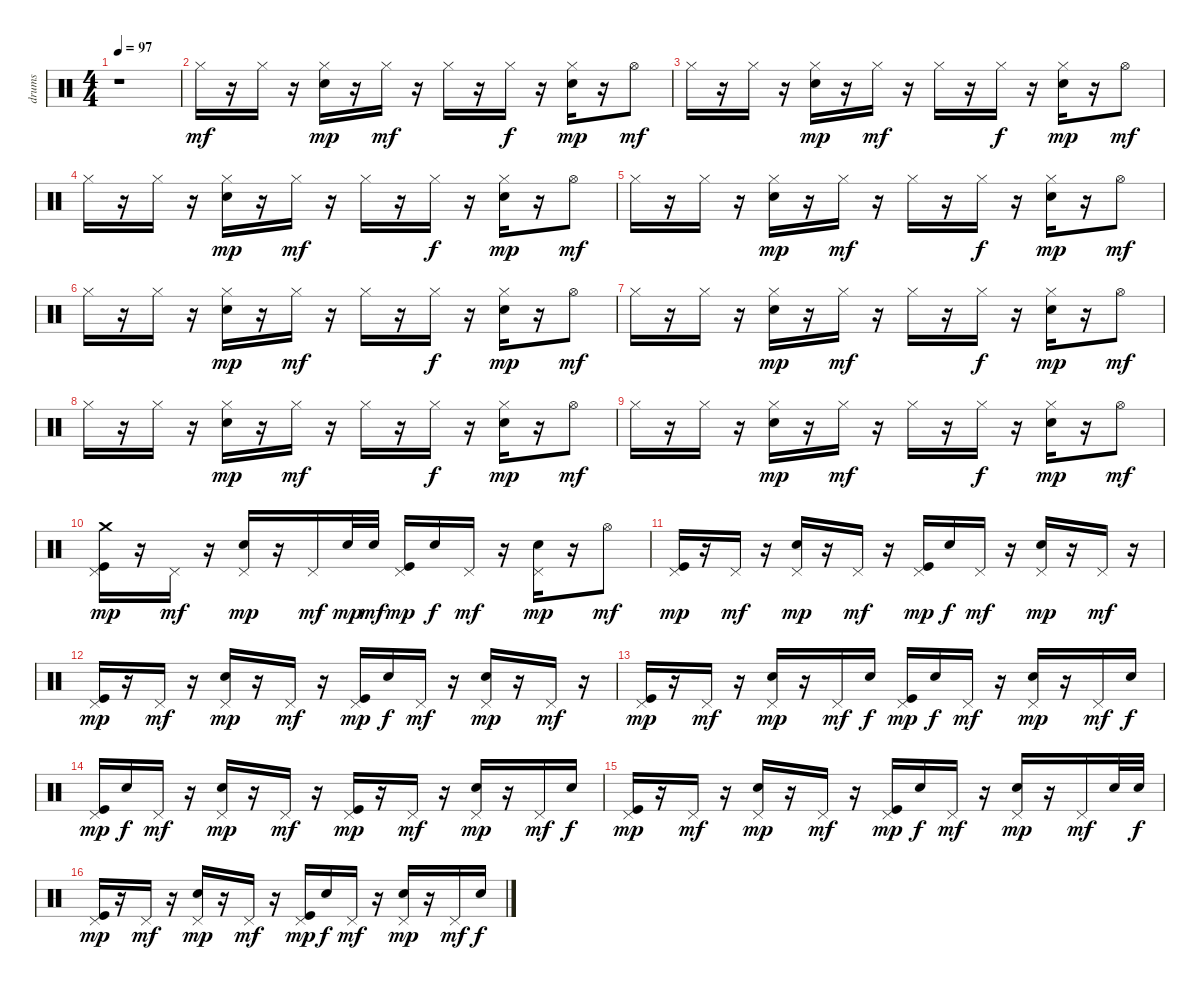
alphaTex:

\track ("drums" "drums") {instrument percussion}
\staff {score}
\articulation defaults
\ts (4 4)
\tempo 97
\clef neutral
\ks c
r.1{dy mf} |
"Hi-Hat (closed)".16 r.16 "Hi-Hat (closed)".16 r.16 ("Hi-Hat (closed)" "Electric Snare (hit)").16{dy mp} r.16 "Hi-Hat (closed)".16{dy mf} r.16 "Hi-Hat (closed)".16 r.16 "Hi-Hat (closed)".16{dy f} r.16 ("Hi-Hat (closed)" "Electric Snare (hit)").16{dy mp} r.16 "Hi-Hat (open)".8{dy mf} |
"Hi-Hat (closed)".16 r.16 "Hi-Hat (closed)".16 r.16 ("Hi-Hat (closed)" "Electric Snare (hit)").16{dy mp} r.16 "Hi-Hat (closed)".16{dy mf} r.16 "Hi-Hat (closed)".16 r.16 "Hi-Hat (closed)".16{dy f} r.16 ("Hi-Hat (closed)" "Electric Snare (hit)").16{dy mp} r.16 "Hi-Hat (open)".8{dy mf} |
"Hi-Hat (closed)".16 r.16 "Hi-Hat (closed)".16 r.16 ("Hi-Hat (closed)" "Electric Snare (hit)").16{dy mp} r.16 "Hi-Hat (closed)".16{dy mf} r.16 "Hi-Hat (closed)".16 r.16 "Hi-Hat (closed)".16{dy f} r.16 ("Hi-Hat (closed)" "Electric Snare (hit)").16{dy mp} r.16 "Hi-Hat (open)".8{dy mf} |
"Hi-Hat (closed)".16 r.16 "Hi-Hat (closed)".16 r.16 ("Hi-Hat (closed)" "Electric Snare (hit)").16{dy mp} r.16 "Hi-Hat (closed)".16{dy mf} r.16 "Hi-Hat (closed)".16 r.16 "Hi-Hat (closed)".16{dy f} r.16 ("Hi-Hat (closed)" "Electric Snare (hit)").16{dy mp} r.16 "Hi-Hat (open)".8{dy mf} |
"Hi-Hat (closed)".16 r.16 "Hi-Hat (closed)".16 r.16 ("Hi-Hat (closed)" "Electric Snare (hit)").16{dy mp} r.16 "Hi-Hat (closed)".16{dy mf} r.16 "Hi-Hat (closed)".16 r.16 "Hi-Hat (closed)".16{dy f} r.16 ("Hi-Hat (closed)" "Electric Snare (hit)").16{dy mp} r.16 "Hi-Hat (open)".8{dy mf} |
"Hi-Hat (closed)".16 r.16 "Hi-Hat (closed)".16 r.16 ("Hi-Hat (closed)" "Electric Snare (hit)").16{dy mp} r.16 "Hi-Hat (closed)".16{dy mf} r.16 "Hi-Hat (closed)".16 r.16 "Hi-Hat (closed)".16{dy f} r.16 ("Hi-Hat (closed)" "Electric Snare (hit)").16{dy mp} r.16 "Hi-Hat (open)".8{dy mf} |
"Hi-Hat (closed)".16 r.16 "Hi-Hat (closed)".16 r.16 ("Hi-Hat (closed)" "Electric Snare (hit)").16{dy mp} r.16 "Hi-Hat (closed)".16{dy mf} r.16 "Hi-Hat (closed)".16 r.16 "Hi-Hat (closed)".16{dy f} r.16 ("Hi-Hat (closed)" "Electric Snare (hit)").16{dy mp} r.16 "Hi-Hat (open)".8{dy mf} |
"Hi-Hat (closed)".16 r.16 "Hi-Hat (closed)".16 r.16 ("Hi-Hat (closed)" "Electric Snare (hit)").16{dy mp} r.16 "Hi-Hat (closed)".16{dy mf} r.16 "Hi-Hat (closed)".16 r.16 "Hi-Hat (closed)".16{dy f} r.16 ("Hi-Hat (closed)" "Electric Snare (hit)").16{dy mp} r.16 "Hi-Hat (open)".8{dy mf} |
("Crash medium (hit)" "Kick (hit)" "Pedal Hi-Hat (hit)").16{dy mp} r.16 "Pedal Hi-Hat (hit)".16{dy mf} r.16 ("Electric Snare (hit)" "Pedal Hi-Hat (hit)").16{dy mp} r.16 "Pedal Hi-Hat (hit)".16{dy mf} "Electric Snare (hit)".32{dy mp} "Electric Snare (hit)".32{dy mf} ("Pedal Hi-Hat (hit)" "Kick (hit)").16{dy mp} "Electric Snare (hit)".16{dy f} "Pedal Hi-Hat (hit)".16{dy mf} r.16 ("Electric Snare (hit)" "Pedal Hi-Hat (hit)").16{dy mp} r.16 "Hi-Hat (open)".8{dy mf} |
("Kick (hit)" "Pedal Hi-Hat (hit)").16{dy mp} r.16 "Pedal Hi-Hat (hit)".16{dy mf} r.16 ("Electric Snare (hit)" "Pedal Hi-Hat (hit)").16{dy mp} r.16 "Pedal Hi-Hat (hit)".16{dy mf} r.16 ("Pedal Hi-Hat (hit)" "Kick (hit)").16{dy mp} "Electric Snare (hit)".16{dy f} "Pedal Hi-Hat (hit)".16{dy mf} r.16 ("Electric Snare (hit)" "Pedal Hi-Hat (hit)").16{dy mp} r.16 "Pedal Hi-Hat (hit)".16{dy mf} r.16 |
("Kick (hit)" "Pedal Hi-Hat (hit)").16{dy mp} r.16 "Pedal Hi-Hat (hit)".16{dy mf} r.16 ("Electric Snare (hit)" "Pedal Hi-Hat (hit)").16{dy mp} r.16 "Pedal Hi-Hat (hit)".16{dy mf} r.16 ("Pedal Hi-Hat (hit)" "Kick (hit)").16{dy mp} "Electric Snare (hit)".16{dy f} "Pedal Hi-Hat (hit)".16{dy mf} r.16 ("Electric Snare (hit)" "Pedal Hi-Hat (hit)").16{dy mp} r.16 "Pedal Hi-Hat (hit)".16{dy mf} r.16 |
("Kick (hit)" "Pedal Hi-Hat (hit)").16{dy mp} r.16 "Pedal Hi-Hat (hit)".16{dy mf} r.16 ("Electric Snare (hit)" "Pedal Hi-Hat (hit)").16{dy mp} r.16 "Pedal Hi-Hat (hit)".16{dy mf} "Electric Snare (hit)".16{dy f} ("Pedal Hi-Hat (hit)" "Kick (hit)").16{dy mp} "Electric Snare (hit)".16{dy f} "Pedal Hi-Hat (hit)".16{dy mf} r.16 ("Electric Snare (hit)" "Pedal Hi-Hat (hit)").16{dy mp} r.16 "Pedal Hi-Hat (hit)".16{dy mf} "Electric Snare (hit)".16{dy f} |
("Kick (hit)" "Pedal Hi-Hat (hit)").16{dy mp} "Electric Snare (hit)".16{dy f} "Pedal Hi-Hat (hit)".16{dy mf} r.16 ("Electric Snare (hit)" "Pedal Hi-Hat (hit)").16{dy mp} r.16 "Pedal Hi-Hat (hit)".16{dy mf} r.16 ("Pedal Hi-Hat (hit)" "Kick (hit)").16{dy mp} r.16 "Pedal Hi-Hat (hit)".16{dy mf} r.16 ("Electric Snare (hit)" "Pedal Hi-Hat (hit)").16{dy mp} r.16 "Pedal Hi-Hat (hit)".16{dy mf} "Electric Snare (hit)".16{dy f} |
("Kick (hit)" "Pedal Hi-Hat (hit)").16{dy mp} r.16 "Pedal Hi-Hat (hit)".16{dy mf} r.16 ("Electric Snare (hit)" "Pedal Hi-Hat (hit)").16{dy mp} r.16 "Pedal Hi-Hat (hit)".16{dy mf} r.16 ("Pedal Hi-Hat (hit)" "Kick (hit)").16{dy mp} "Electric Snare (hit)".16{dy f} "Pedal Hi-Hat (hit)".16{dy mf} r.16 ("Electric Snare (hit)" "Pedal Hi-Hat (hit)").16{dy mp} r.16 "Pedal Hi-Hat (hit)".16{dy mf} "Electric Snare (hit)".32 "Electric Snare (hit)".32{dy f} |
("Kick (hit)" "Pedal Hi-Hat (hit)").16{dy mp} r.16 "Pedal Hi-Hat (hit)".16{dy mf} r.16 ("Electric Snare (hit)" "Pedal Hi-Hat (hit)").16{dy mp} r.16 "Pedal Hi-Hat (hit)".16{dy mf} r.16 ("Pedal Hi-Hat (hit)" "Kick (hit)").16{dy mp} "Electric Snare (hit)".16{dy f} "Pedal Hi-Hat (hit)".16{dy mf} r.16 ("Electric Snare (hit)" "Pedal Hi-Hat (hit)").16{dy mp} r.16 "Pedal Hi-Hat (hit)".16{dy mf} "Electric Snare (hit)".16{dy f}
